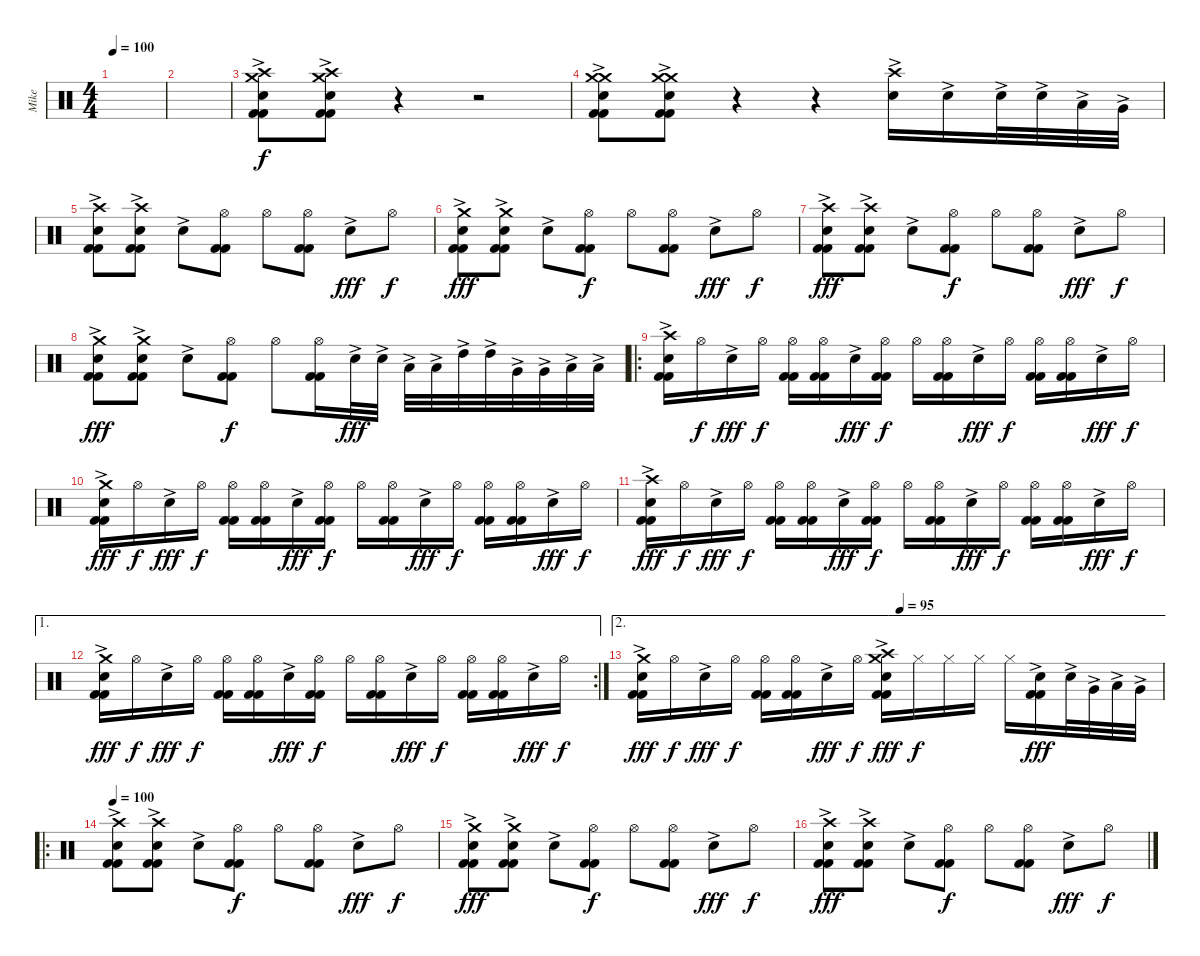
\track ("Mike" "Mike") {instrument percussion}
\staff {score}
\articulation defaults
\ts (4 4)
\tempo 100
\clef neutral
\ks c
|
|
("Crash high (hit)"{ac} "Crash medium (hit)" "Electric Snare (hit)" "Kick (hit) 2" "Kick (hit) 2").8 ("Crash high (hit)"{ac} "Crash medium (hit)" "Electric Snare (hit)" "Kick (hit) 2" "Kick (hit) 2").8 r.4 r.2 |
("Crash medium (hit)"{ac} "Crash medium (hit)" "Electric Snare (hit)" "Kick (hit) 2" "Kick (hit) 2").8 ("Crash medium (hit)"{ac} "Crash medium (hit)" "Electric Snare (hit)" "Kick (hit) 2" "Kick (hit) 2").8 r.4 r.4 ("Crash high (hit)" "Electric Snare (hit)"{ac}).16 "Electric Snare (hit)"{ac}.16 "Electric Snare (hit)"{ac}.32 "Electric Snare (hit)"{ac}.32 "Low Tom (hit)"{ac}.32 "Very Low Tom (hit)"{ac}.32 |
("Crash high (hit)"{ac} "Electric Snare (hit)" "Kick (hit) 2" "Kick (hit) 2").8 ("Crash high (hit)"{ac} "Electric Snare (hit)" "Kick (hit) 2" "Kick (hit) 2").8 "Electric Snare (hit)"{ac}.8 ("Hi-Hat (open)" "Kick (hit) 2" "Kick (hit) 2").8{dy f} "Hi-Hat (open)".8 ("Hi-Hat (open)" "Kick (hit) 2" "Kick (hit) 2").8 "Electric Snare (hit)"{ac}.8{dy fff} "Hi-Hat (open)".8{dy f} |
("Crash medium (hit)"{ac} "Electric Snare (hit)" "Kick (hit) 2" "Kick (hit) 2").8{dy fff} ("Crash medium (hit)"{ac} "Electric Snare (hit)" "Kick (hit) 2" "Kick (hit) 2").8 "Electric Snare (hit)"{ac}.8 ("Hi-Hat (open)" "Kick (hit) 2" "Kick (hit) 2").8{dy f} "Hi-Hat (open)".8 ("Hi-Hat (open)" "Kick (hit) 2" "Kick (hit) 2").8 "Electric Snare (hit)"{ac}.8{dy fff} "Hi-Hat (open)".8{dy f} |
("Crash high (hit)"{ac} "Electric Snare (hit)" "Kick (hit) 2" "Kick (hit) 2").8{dy fff} ("Crash high (hit)"{ac} "Electric Snare (hit)" "Kick (hit) 2" "Kick (hit) 2").8 "Electric Snare (hit)"{ac}.8 ("Hi-Hat (open)" "Kick (hit) 2" "Kick (hit) 2").8{dy f} "Hi-Hat (open)".8 ("Hi-Hat (open)" "Kick (hit) 2" "Kick (hit) 2").8 "Electric Snare (hit)"{ac}.8{dy fff} "Hi-Hat (open)".8{dy f} |
("Crash medium (hit)"{ac} "Electric Snare (hit)" "Kick (hit) 2" "Kick (hit) 2").8{dy fff} ("Crash medium (hit)"{ac} "Electric Snare (hit)" "Kick (hit) 2" "Kick (hit) 2").8 "Electric Snare (hit)"{ac}.8 ("Hi-Hat (open)" "Kick (hit) 2" "Kick (hit) 2").8{dy f} "Hi-Hat (open)".8 ("Hi-Hat (open)" "Kick (hit) 2" "Kick (hit) 2").16 "Electric Snare (hit)"{ac}.32{dy fff} "Electric Snare (hit)"{ac}.32 "Low Tom (hit)"{ac}.32 "Low Tom (hit)"{ac}.32 "High Tom (hit)"{ac}.32 "High Tom (hit)"{ac}.32 "Very Low Tom (hit)"{ac}.32 "Very Low Tom (hit)"{ac}.32 "Low Tom (hit)"{ac}.32 "Low Tom (hit)"{ac}.32 |
\ro
("Crash high (hit)"{ac} "Electric Snare (hit)" "Kick (hit) 2" "Kick (hit) 2").16 "Hi-Hat (open)".16{dy f} "Electric Snare (hit)"{ac}.16{dy fff} "Hi-Hat (open)".16{dy f} ("Hi-Hat (open)" "Kick (hit) 2" "Kick (hit) 2").16 ("Hi-Hat (open)" "Kick (hit) 2" "Kick (hit) 2").16 "Electric Snare (hit)"{ac}.16{dy fff} ("Hi-Hat (open)" "Kick (hit) 2" "Kick (hit) 2").16{dy f} "Hi-Hat (open)".16 ("Hi-Hat (open)" "Kick (hit) 2" "Kick (hit) 2").16 "Electric Snare (hit)"{ac}.16{dy fff} "Hi-Hat (open)".16{dy f} ("Hi-Hat (open)" "Kick (hit) 2" "Kick (hit) 2").16 ("Hi-Hat (open)" "Kick (hit) 2" "Kick (hit) 2").16 "Electric Snare (hit)"{ac}.16{dy fff} "Hi-Hat (open)".16{dy f} |
("Crash medium (hit)"{ac} "Electric Snare (hit)" "Kick (hit) 2" "Kick (hit) 2").16{dy fff} "Hi-Hat (open)".16{dy f} "Electric Snare (hit)"{ac}.16{dy fff} "Hi-Hat (open)".16{dy f} ("Hi-Hat (open)" "Kick (hit) 2" "Kick (hit) 2").16 ("Hi-Hat (open)" "Kick (hit) 2" "Kick (hit) 2").16 "Electric Snare (hit)"{ac}.16{dy fff} ("Hi-Hat (open)" "Kick (hit) 2" "Kick (hit) 2").16{dy f} "Hi-Hat (open)".16 ("Hi-Hat (open)" "Kick (hit) 2" "Kick (hit) 2").16 "Electric Snare (hit)"{ac}.16{dy fff} "Hi-Hat (open)".16{dy f} ("Hi-Hat (open)" "Kick (hit) 2" "Kick (hit) 2").16 ("Hi-Hat (open)" "Kick (hit) 2" "Kick (hit) 2").16 "Electric Snare (hit)"{ac}.16{dy fff} "Hi-Hat (open)".16{dy f} |
("Crash high (hit)"{ac} "Electric Snare (hit)" "Kick (hit) 2" "Kick (hit) 2").16{dy fff} "Hi-Hat (open)".16{dy f} "Electric Snare (hit)"{ac}.16{dy fff} "Hi-Hat (open)".16{dy f} ("Hi-Hat (open)" "Kick (hit) 2" "Kick (hit) 2").16 ("Hi-Hat (open)" "Kick (hit) 2" "Kick (hit) 2").16 "Electric Snare (hit)"{ac}.16{dy fff} ("Hi-Hat (open)" "Kick (hit) 2" "Kick (hit) 2").16{dy f} "Hi-Hat (open)".16 ("Hi-Hat (open)" "Kick (hit) 2" "Kick (hit) 2").16 "Electric Snare (hit)"{ac}.16{dy fff} "Hi-Hat (open)".16{dy f} ("Hi-Hat (open)" "Kick (hit) 2" "Kick (hit) 2").16 ("Hi-Hat (open)" "Kick (hit) 2" "Kick (hit) 2").16 "Electric Snare (hit)"{ac}.16{dy fff} "Hi-Hat (open)".16{dy f} |
\ae 1
\rc 2
("Crash medium (hit)"{ac} "Electric Snare (hit)" "Kick (hit) 2" "Kick (hit) 2").16{dy fff} "Hi-Hat (open)".16{dy f} "Electric Snare (hit)"{ac}.16{dy fff} "Hi-Hat (open)".16{dy f} ("Hi-Hat (open)" "Kick (hit) 2" "Kick (hit) 2").16 ("Hi-Hat (open)" "Kick (hit) 2" "Kick (hit) 2").16 "Electric Snare (hit)"{ac}.16{dy fff} ("Hi-Hat (open)" "Kick (hit) 2" "Kick (hit) 2").16{dy f} "Hi-Hat (open)".16 ("Hi-Hat (open)" "Kick (hit) 2" "Kick (hit) 2").16 "Electric Snare (hit)"{ac}.16{dy fff} "Hi-Hat (open)".16{dy f} ("Hi-Hat (open)" "Kick (hit) 2" "Kick (hit) 2").16 ("Hi-Hat (open)" "Kick (hit) 2" "Kick (hit) 2").16 "Electric Snare (hit)"{ac}.16{dy fff} "Hi-Hat (open)".16{dy f} |
\ae 2
\tempo (95 0.5)
("Crash medium (hit)"{ac} "Electric Snare (hit)" "Kick (hit) 2" "Kick (hit) 2"{ac}).16{dy fff} "Hi-Hat (open)".16{dy f} "Electric Snare (hit)"{ac}.16{dy fff} "Hi-Hat (open)".16{dy f} ("Hi-Hat (open)" "Kick (hit) 2" "Kick (hit) 2").16 ("Hi-Hat (open)" "Kick (hit) 2" "Kick (hit) 2").16 "Electric Snare (hit)"{ac}.16{dy fff} "Hi-Hat (open)".16{dy f} ("Crash medium (hit)" "Crash high (hit)" "Electric Snare (hit)"{ac} "Kick (hit) 2" "Kick (hit) 2").16{dy fff} "Hi-Hat (closed)".16{dy f} "Hi-Hat (closed)".16 "Hi-Hat (closed)".16 "Hi-Hat (closed)".16 ("Electric Snare (hit)"{ac} "Kick (hit) 2" "Kick (hit) 2").16{dy fff} "Electric Snare (hit)"{ac}.32 "Very Low Tom (hit)"{ac}.32 "Low Floor Tom (hit)"{ac}.32 "Very Low Tom (hit)"{ac}.32 |
\ro
\tempo 100
("Crash high (hit)"{ac} "Electric Snare (hit)" "Kick (hit) 2" "Kick (hit) 2").8 ("Crash high (hit)"{ac} "Electric Snare (hit)" "Kick (hit) 2" "Kick (hit) 2").8 "Electric Snare (hit)"{ac}.8 ("Hi-Hat (open)" "Kick (hit) 2" "Kick (hit) 2").8{dy f} "Hi-Hat (open)".8 ("Hi-Hat (open)" "Kick (hit) 2" "Kick (hit) 2").8 "Electric Snare (hit)"{ac}.8{dy fff} "Hi-Hat (open)".8{dy f} |
("Crash medium (hit)"{ac} "Electric Snare (hit)" "Kick (hit) 2" "Kick (hit) 2").8{dy fff} ("Crash medium (hit)"{ac} "Electric Snare (hit)" "Kick (hit) 2" "Kick (hit) 2").8 "Electric Snare (hit)"{ac}.8 ("Hi-Hat (open)" "Kick (hit) 2" "Kick (hit) 2").8{dy f} "Hi-Hat (open)".8 ("Hi-Hat (open)" "Kick (hit) 2" "Kick (hit) 2").8 "Electric Snare (hit)"{ac}.8{dy fff} "Hi-Hat (open)".8{dy f} |
("Crash high (hit)"{ac} "Electric Snare (hit)" "Kick (hit) 2" "Kick (hit) 2").8{dy fff} ("Crash high (hit)"{ac} "Electric Snare (hit)" "Kick (hit) 2" "Kick (hit) 2").8 "Electric Snare (hit)"{ac}.8 ("Hi-Hat (open)" "Kick (hit) 2" "Kick (hit) 2").8{dy f} "Hi-Hat (open)".8 ("Hi-Hat (open)" "Kick (hit) 2" "Kick (hit) 2").8 "Electric Snare (hit)"{ac}.8{dy fff} "Hi-Hat (open)".8{dy f}
